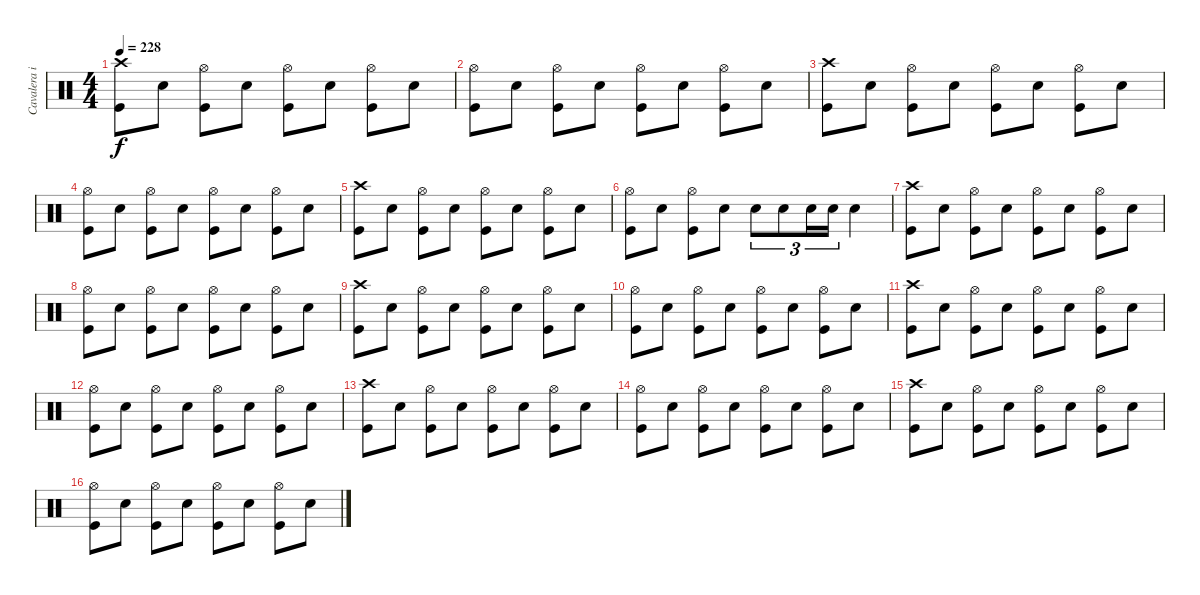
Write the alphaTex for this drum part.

\track ("Cavalera igor" "Cavalera i") {instrument percussion}
\staff {score}
\articulation defaults
\ts (4 4)
\tempo 228
\clef neutral
\ks c
("Crash high (hit)" "Kick (hit)").8{dy f} "Electric Snare (hit)".8 ("Hi-Hat (open)" "Kick (hit)").8 "Electric Snare (hit)".8 ("Hi-Hat (open)" "Kick (hit)").8 "Electric Snare (hit)".8 ("Hi-Hat (open)" "Kick (hit)").8 "Electric Snare (hit)".8 |
("Hi-Hat (open)" "Kick (hit)").8 "Electric Snare (hit)".8 ("Hi-Hat (open)" "Kick (hit)").8 "Electric Snare (hit)".8 ("Hi-Hat (open)" "Kick (hit)").8 "Electric Snare (hit)".8 ("Hi-Hat (open)" "Kick (hit)").8 "Electric Snare (hit)".8 |
("Crash high (hit)" "Kick (hit)").8 "Electric Snare (hit)".8 ("Hi-Hat (open)" "Kick (hit)").8 "Electric Snare (hit)".8 ("Hi-Hat (open)" "Kick (hit)").8 "Electric Snare (hit)".8 ("Hi-Hat (open)" "Kick (hit)").8 "Electric Snare (hit)".8 |
("Hi-Hat (open)" "Kick (hit)").8 "Electric Snare (hit)".8 ("Hi-Hat (open)" "Kick (hit)").8 "Electric Snare (hit)".8 ("Hi-Hat (open)" "Kick (hit)").8 "Electric Snare (hit)".8 ("Hi-Hat (open)" "Kick (hit)").8 "Electric Snare (hit)".8 |
("Crash high (hit)" "Kick (hit)").8 "Electric Snare (hit)".8 ("Hi-Hat (open)" "Kick (hit)").8 "Electric Snare (hit)".8 ("Hi-Hat (open)" "Kick (hit)").8 "Electric Snare (hit)".8 ("Hi-Hat (open)" "Kick (hit)").8 "Electric Snare (hit)".8 |
("Hi-Hat (open)" "Kick (hit)").8 "Electric Snare (hit)".8 ("Hi-Hat (open)" "Kick (hit)").8 "Electric Snare (hit)".8 "Electric Snare (hit)".8{tu (3 2)} "Electric Snare (hit)".8{tu (3 2)} "Electric Snare (hit)".16{tu (3 2)} "Electric Snare (hit)".16{tu (3 2)} "Electric Snare (hit)".4 |
("Crash high (hit)" "Kick (hit)").8 "Electric Snare (hit)".8 ("Hi-Hat (open)" "Kick (hit)").8 "Electric Snare (hit)".8 ("Hi-Hat (open)" "Kick (hit)").8 "Electric Snare (hit)".8 ("Hi-Hat (open)" "Kick (hit)").8 "Electric Snare (hit)".8 |
("Hi-Hat (open)" "Kick (hit)").8 "Electric Snare (hit)".8 ("Hi-Hat (open)" "Kick (hit)").8 "Electric Snare (hit)".8 ("Hi-Hat (open)" "Kick (hit)").8 "Electric Snare (hit)".8 ("Hi-Hat (open)" "Kick (hit)").8 "Electric Snare (hit)".8 |
("Crash high (hit)" "Kick (hit)").8 "Electric Snare (hit)".8 ("Hi-Hat (open)" "Kick (hit)").8 "Electric Snare (hit)".8 ("Hi-Hat (open)" "Kick (hit)").8 "Electric Snare (hit)".8 ("Hi-Hat (open)" "Kick (hit)").8 "Electric Snare (hit)".8 |
("Hi-Hat (open)" "Kick (hit)").8 "Electric Snare (hit)".8 ("Hi-Hat (open)" "Kick (hit)").8 "Electric Snare (hit)".8 ("Hi-Hat (open)" "Kick (hit)").8 "Electric Snare (hit)".8 ("Hi-Hat (open)" "Kick (hit)").8 "Electric Snare (hit)".8 |
("Crash high (hit)" "Kick (hit)").8 "Electric Snare (hit)".8 ("Hi-Hat (open)" "Kick (hit)").8 "Electric Snare (hit)".8 ("Hi-Hat (open)" "Kick (hit)").8 "Electric Snare (hit)".8 ("Hi-Hat (open)" "Kick (hit)").8 "Electric Snare (hit)".8 |
("Hi-Hat (open)" "Kick (hit)").8 "Electric Snare (hit)".8 ("Hi-Hat (open)" "Kick (hit)").8 "Electric Snare (hit)".8 ("Hi-Hat (open)" "Kick (hit)").8 "Electric Snare (hit)".8 ("Hi-Hat (open)" "Kick (hit)").8 "Electric Snare (hit)".8 |
("Crash high (hit)" "Kick (hit)").8 "Electric Snare (hit)".8 ("Hi-Hat (open)" "Kick (hit)").8 "Electric Snare (hit)".8 ("Hi-Hat (open)" "Kick (hit)").8 "Electric Snare (hit)".8 ("Hi-Hat (open)" "Kick (hit)").8 "Electric Snare (hit)".8 |
("Hi-Hat (open)" "Kick (hit)").8 "Electric Snare (hit)".8 ("Hi-Hat (open)" "Kick (hit)").8 "Electric Snare (hit)".8 ("Hi-Hat (open)" "Kick (hit)").8 "Electric Snare (hit)".8 ("Hi-Hat (open)" "Kick (hit)").8 "Electric Snare (hit)".8 |
("Crash high (hit)" "Kick (hit)").8 "Electric Snare (hit)".8 ("Hi-Hat (open)" "Kick (hit)").8 "Electric Snare (hit)".8 ("Hi-Hat (open)" "Kick (hit)").8 "Electric Snare (hit)".8 ("Hi-Hat (open)" "Kick (hit)").8 "Electric Snare (hit)".8 |
("Hi-Hat (open)" "Kick (hit)").8 "Electric Snare (hit)".8 ("Hi-Hat (open)" "Kick (hit)").8 "Electric Snare (hit)".8 ("Hi-Hat (open)" "Kick (hit)").8 "Electric Snare (hit)".8 ("Hi-Hat (open)" "Kick (hit)").8 "Electric Snare (hit)".8
